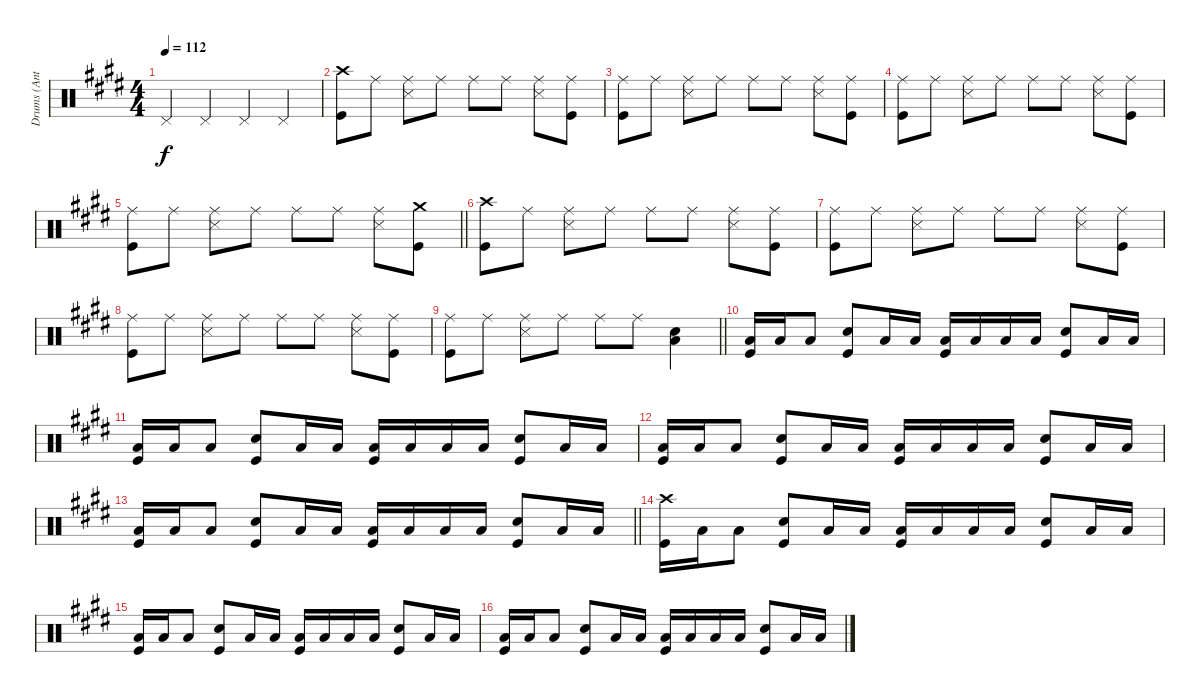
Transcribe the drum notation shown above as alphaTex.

\track ("Drums (Ant)" "Drums (Ant") {instrument percussion}
\staff {score}
\articulation defaults
\ts (4 4)
\tempo 112
\clef neutral
\ks e "Pedal Hi-Hat (hit)".4{dy f} "Pedal Hi-Hat (hit)".4 "Pedal Hi-Hat (hit)".4 "Pedal Hi-Hat (hit)".4
|
("Crash high (hit)" "Kick (hit)").8 "Ride (middle)".8 ("Ride (middle)" "Snare (side stick) 3").8 "Ride (middle)".8 "Ride (middle)".8 "Ride (middle)".8 ("Ride (middle)" "Snare (side stick) 3").8 ("Ride (middle)" "Kick (hit)").8 |
("Ride (middle)" "Kick (hit)").8 "Ride (middle)".8 ("Ride (middle)" "Snare (side stick) 3").8 "Ride (middle)".8 "Ride (middle)".8 "Ride (middle)".8 ("Ride (middle)" "Snare (side stick) 3").8 ("Ride (middle)" "Kick (hit)").8 |
("Ride (middle)" "Kick (hit)").8 "Ride (middle)".8 ("Ride (middle)" "Snare (side stick) 3").8 "Ride (middle)".8 "Ride (middle)".8 "Ride (middle)".8 ("Ride (middle)" "Snare (side stick) 3").8 ("Ride (middle)" "Kick (hit)").8 |
\barLineRight lightlight
("Ride (middle)" "Kick (hit)").8 "Ride (middle)".8 ("Ride (middle)" "Snare (side stick) 3").8 "Ride (middle)".8 "Ride (middle)".8 "Ride (middle)".8 ("Ride (middle)" "Snare (side stick) 3").8 ("Crash medium (hit)" "Kick (hit)").8 |
("Crash high (hit)" "Kick (hit)").8 "Ride (middle)".8 ("Ride (middle)" "Snare (side stick) 3").8 "Ride (middle)".8 "Ride (middle)".8 "Ride (middle)".8 ("Ride (middle)" "Snare (side stick) 3").8 ("Ride (middle)" "Kick (hit)").8 |
("Ride (middle)" "Kick (hit)").8 "Ride (middle)".8 ("Ride (middle)" "Snare (side stick) 3").8 "Ride (middle)".8 "Ride (middle)".8 "Ride (middle)".8 ("Ride (middle)" "Snare (side stick) 3").8 ("Ride (middle)" "Kick (hit)").8 |
("Ride (middle)" "Kick (hit)").8 "Ride (middle)".8 ("Ride (middle)" "Snare (side stick) 3").8 "Ride (middle)".8 "Ride (middle)".8 "Ride (middle)".8 ("Ride (middle)" "Snare (side stick) 3").8 ("Ride (middle)" "Kick (hit)").8 |
\barLineRight lightlight
("Ride (middle)" "Kick (hit)").8 "Ride (middle)".8 ("Ride (middle)" "Snare (side stick) 3").8 "Ride (middle)".8 "Ride (middle)".8 "Ride (middle)".8 ("Low Floor Tom (hit)" "Snare (hit) 2").4 |
("Low Floor Tom (hit)" "Kick (hit)").16 "Low Tom (hit)".16 "Low Floor Tom (hit)".8 ("Snare (hit) 2" "Kick (hit)").8 "Low Floor Tom (hit)".16 "Low Tom (hit)".16 ("Low Floor Tom (hit)" "Kick (hit)").16 "Low Tom (hit)".16 "Low Floor Tom (hit)".16 "Low Floor Tom (hit)".16 ("Snare (hit) 2" "Kick (hit)").8 "Low Floor Tom (hit)".16 "Low Tom (hit)".16 |
("Low Floor Tom (hit)" "Kick (hit)").16 "Low Tom (hit)".16 "Low Floor Tom (hit)".8 ("Snare (hit) 2" "Kick (hit)").8 "Low Floor Tom (hit)".16 "Low Tom (hit)".16 ("Low Floor Tom (hit)" "Kick (hit)").16 "Low Tom (hit)".16 "Low Floor Tom (hit)".16 "Low Floor Tom (hit)".16 ("Snare (hit) 2" "Kick (hit)").8 "Low Floor Tom (hit)".16 "Low Tom (hit)".16 |
("Low Floor Tom (hit)" "Kick (hit)").16 "Low Tom (hit)".16 "Low Floor Tom (hit)".8 ("Snare (hit) 2" "Kick (hit)").8 "Low Floor Tom (hit)".16 "Low Tom (hit)".16 ("Low Floor Tom (hit)" "Kick (hit)").16 "Low Tom (hit)".16 "Low Floor Tom (hit)".16 "Low Floor Tom (hit)".16 ("Snare (hit) 2" "Kick (hit)").8 "Low Floor Tom (hit)".16 "Low Tom (hit)".16 |
\barLineRight lightlight
("Low Floor Tom (hit)" "Kick (hit)").16 "Low Tom (hit)".16 "Low Floor Tom (hit)".8 ("Snare (hit) 2" "Kick (hit)").8 "Low Floor Tom (hit)".16 "Low Tom (hit)".16 ("Low Floor Tom (hit)" "Kick (hit)").16 "Low Tom (hit)".16 "Low Floor Tom (hit)".16 "Low Floor Tom (hit)".16 ("Snare (hit) 2" "Kick (hit)").8 "Low Floor Tom (hit)".16 "Low Tom (hit)".16 |
("Crash high (hit)" "Kick (hit)").16 "Low Tom (hit)".16 "Low Floor Tom (hit)".8 ("Snare (hit) 2" "Kick (hit)").8 "Low Floor Tom (hit)".16 "Low Tom (hit)".16 ("Low Floor Tom (hit)" "Kick (hit)").16 "Low Tom (hit)".16 "Low Floor Tom (hit)".16 "Low Floor Tom (hit)".16 ("Snare (hit) 2" "Kick (hit)").8 "Low Floor Tom (hit)".16 "Low Tom (hit)".16 |
("Low Floor Tom (hit)" "Kick (hit)").16 "Low Tom (hit)".16 "Low Floor Tom (hit)".8 ("Snare (hit) 2" "Kick (hit)").8 "Low Floor Tom (hit)".16 "Low Tom (hit)".16 ("Low Floor Tom (hit)" "Kick (hit)").16 "Low Tom (hit)".16 "Low Floor Tom (hit)".16 "Low Floor Tom (hit)".16 ("Snare (hit) 2" "Kick (hit)").8 "Low Floor Tom (hit)".16 "Low Tom (hit)".16 |
("Low Floor Tom (hit)" "Kick (hit)").16 "Low Tom (hit)".16 "Low Floor Tom (hit)".8 ("Snare (hit) 2" "Kick (hit)").8 "Low Floor Tom (hit)".16 "Low Tom (hit)".16 ("Low Floor Tom (hit)" "Kick (hit)").16 "Low Tom (hit)".16 "Low Floor Tom (hit)".16 "Low Floor Tom (hit)".16 ("Snare (hit) 2" "Kick (hit)").8 "Low Floor Tom (hit)".16 "Low Tom (hit)".16
